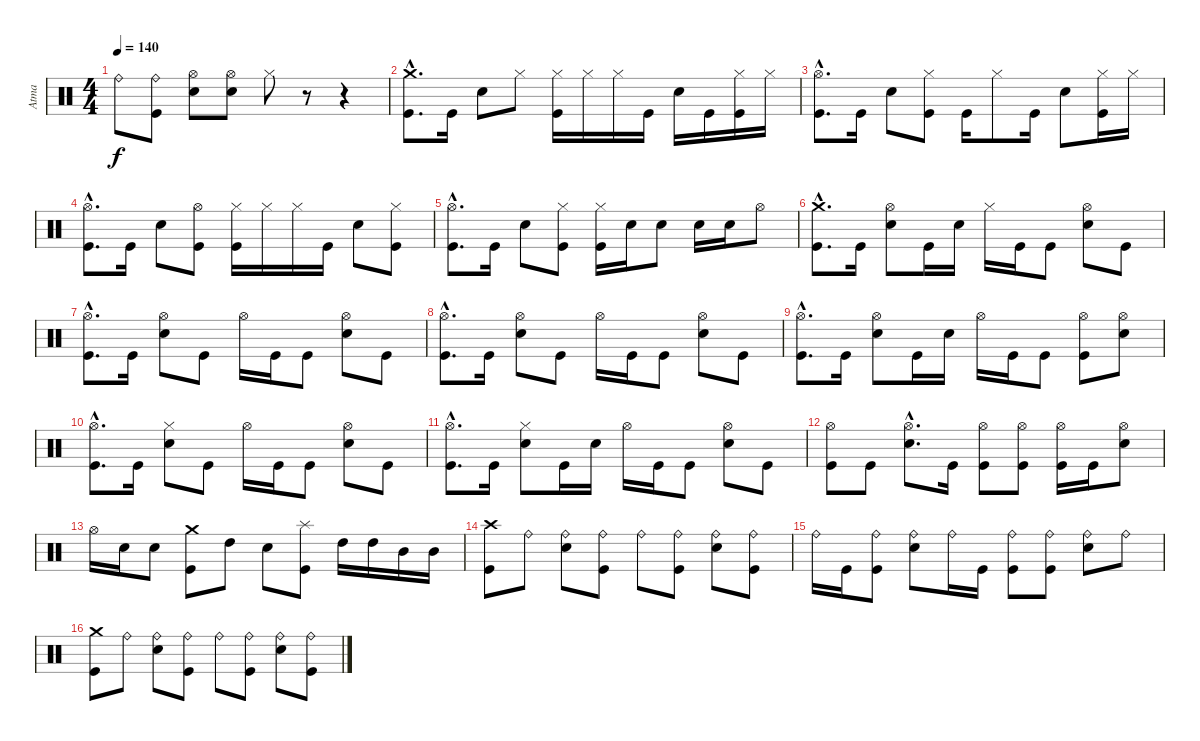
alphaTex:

\track ("Atma" "Atma") {instrument percussion}
\staff {score}
\articulation defaults
\ts (4 4)
\tempo 140
\clef neutral
\ks c "Ride (bell)".8{dy f}
("Kick (hit)" "Ride (bell)").8 ("Snare (hit) 2" "Hi-Hat (open)").8 ("Snare (hit) 2" "Hi-Hat (open)").8 "Hi-Hat (closed)".8 r.8 r.4 |
("Kick (hit)"{hac} "Crash medium (hit)"{hac}).8{d} "Kick (hit)".16 "Snare (hit) 2".8 "Hi-Hat (closed)".8 ("Kick (hit)" "Hi-Hat (closed)").16 "Hi-Hat (closed)".16 "Hi-Hat (closed)".16 "Kick (hit)".16 "Snare (hit) 2".16 "Kick (hit)".16 ("Kick (hit)" "Hi-Hat (closed)").16 "Hi-Hat (closed)".16 |
("Kick (hit)"{hac} "Hi-Hat (open)"{hac}).8{d} "Kick (hit)".16 "Snare (hit) 2".8 ("Kick (hit)" "Hi-Hat (closed)").8 "Kick (hit)".16 "Hi-Hat (closed)".8 "Kick (hit)".16 "Snare (hit) 2".8 ("Kick (hit)" "Hi-Hat (closed)").16 "Hi-Hat (closed)".16 |
("Kick (hit)"{hac} "Hi-Hat (open)"{hac}).8{d} "Kick (hit)".16 "Snare (hit) 2".8 ("Kick (hit)" "Hi-Hat (open)").8 ("Kick (hit)" "Hi-Hat (closed)").16 "Hi-Hat (closed)".16 "Hi-Hat (closed)".16 "Kick (hit)".16 "Snare (hit) 2".8 ("Kick (hit)" "Hi-Hat (closed)").8 |
("Kick (hit)"{hac} "Hi-Hat (open)"{hac}).8{d} "Kick (hit)".16 "Snare (hit) 2".8 ("Kick (hit)" "Hi-Hat (closed)").8 ("Kick (hit)" "Hi-Hat (closed)").16 "Snare (hit) 2".16 "Snare (hit) 2".8 "Snare (hit) 2".16 "Snare (hit) 2".16 "Hi-Hat (open)".8 |
("Kick (hit)"{hac} "Crash medium (hit)"{hac}).8{d} "Kick (hit)".16 ("Snare (hit) 2" "Hi-Hat (open)").8 "Kick (hit)".16 "Snare (hit) 2".16 "Hi-Hat (closed)".16 "Kick (hit)".16 "Kick (hit)".8 ("Snare (hit) 2" "Hi-Hat (open)").8 "Kick (hit)".8 |
("Kick (hit)"{hac} "Hi-Hat (open)"{hac}).8{d} "Kick (hit)".16 ("Snare (hit) 2" "Hi-Hat (open)").8 "Kick (hit)".8 "Hi-Hat (open)".16 "Kick (hit)".16 "Kick (hit)".8 ("Snare (hit) 2" "Hi-Hat (open)").8 "Kick (hit)".8 |
("Kick (hit)"{hac} "Hi-Hat (open)"{hac}).8{d} "Kick (hit)".16 ("Snare (hit) 2" "Hi-Hat (open)").8 "Kick (hit)".8 "Hi-Hat (open)".16 "Kick (hit)".16 "Kick (hit)".8 ("Snare (hit) 2" "Hi-Hat (open)").8 "Kick (hit)".8 |
("Kick (hit)"{hac} "Hi-Hat (open)"{hac}).8{d} "Kick (hit)".16 ("Snare (hit) 2" "Hi-Hat (open)").8 "Kick (hit)".16 "Snare (hit) 2".16 "Hi-Hat (open)".16 "Kick (hit)".16 "Kick (hit)".8 ("Kick (hit)" "Hi-Hat (open)").8 ("Snare (hit) 2" "Hi-Hat (open)").8 |
("Kick (hit)"{hac} "Hi-Hat (open)"{hac}).8{d} "Kick (hit)".16 ("Snare (hit) 2" "Hi-Hat (closed)").8 "Kick (hit)".8 "Hi-Hat (open)".16 "Kick (hit)".16 "Kick (hit)".8 ("Snare (hit) 2" "Hi-Hat (open)").8 "Kick (hit)".8 |
("Kick (hit)"{hac} "Hi-Hat (open)"{hac}).8{d} "Kick (hit)".16 ("Snare (hit) 2" "Hi-Hat (closed)").8 "Kick (hit)".16 "Snare (hit) 2".16 "Hi-Hat (open)".16 "Kick (hit)".16 "Kick (hit)".8 ("Snare (hit) 2" "Hi-Hat (open)").8 "Kick (hit)".8 |
("Kick (hit)" "Hi-Hat (open)").8 "Kick (hit)".8 ("Snare (hit) 2"{hac} "Hi-Hat (open)"{hac}).8{d} "Kick (hit)".16 ("Kick (hit)" "Hi-Hat (open)").8 ("Kick (hit)" "Hi-Hat (open)").8 ("Kick (hit)" "Hi-Hat (open)").16 "Kick (hit)".16 ("Snare (hit) 2" "Hi-Hat (open)").8 |
"Hi-Hat (open)".16 "Snare (hit) 2".16 "Snare (hit) 2".8 ("Kick (hit)" "Crash medium (hit)").8 "High Tom (hit)".8 "Snare (hit) 2".8 ("Kick (hit)" "Splash (hit)").8 "High Tom (hit)".16 "High Tom (hit)".16 "Mid Tom (hit)".16 "Mid Tom (hit)".16 |
("Kick (hit)" "Crash high (hit)").8 "Ride (bell)".8 ("Snare (hit) 2" "Ride (bell)").8 ("Kick (hit)" "Ride (bell)").8 "Ride (bell)".8 ("Kick (hit)" "Ride (bell)").8 ("Snare (hit) 2" "Ride (bell)").8 ("Kick (hit)" "Ride (bell)").8 |
"Ride (bell)".16 "Kick (hit)".16 ("Kick (hit)" "Ride (bell)").8 ("Snare (hit) 2" "Ride (bell)").8 "Ride (bell)".16 "Kick (hit)".16 ("Kick (hit)" "Ride (bell)").8 ("Kick (hit)" "Ride (bell)").8 ("Snare (hit) 2" "Ride (bell)").8 "Ride (bell)".8 |
("Kick (hit)" "Crash medium (hit)").8 "Ride (bell)".8 ("Snare (hit) 2" "Ride (bell)").8 ("Kick (hit)" "Ride (bell)").8 "Ride (bell)".8 ("Kick (hit)" "Ride (bell)").8 ("Snare (hit) 2" "Ride (bell)").8 ("Kick (hit)" "Ride (bell)").8
